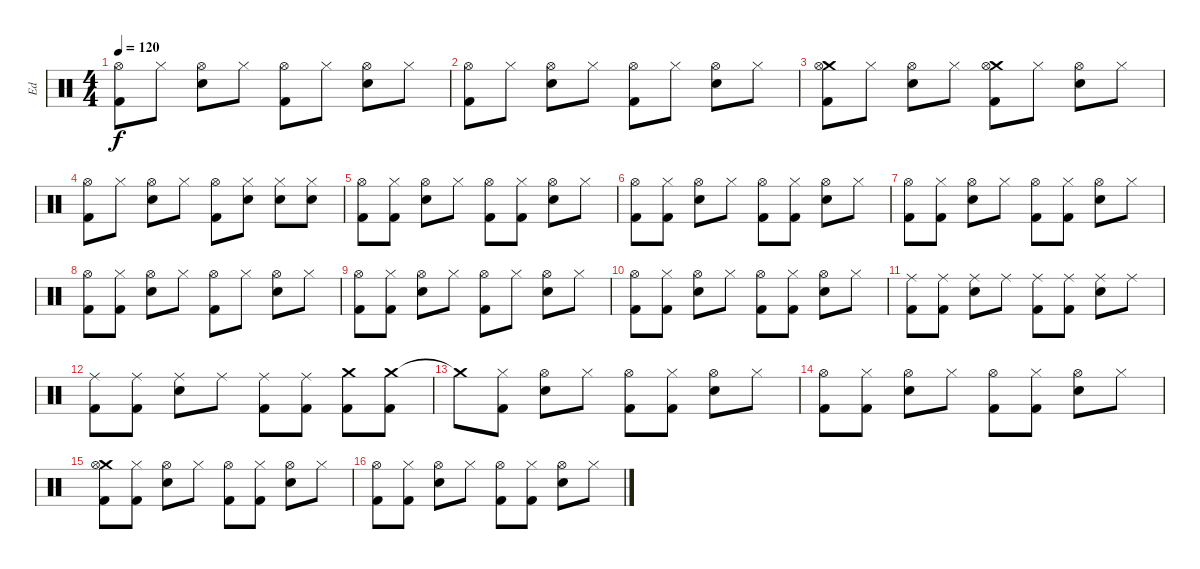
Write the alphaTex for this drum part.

\track ("Ed" "Ed") {instrument percussion}
\staff {score}
\articulation defaults
\ts (4 4)
\tempo 120
\clef neutral
\ks c
("Hi-Hat (open)" "Kick (hit) 2").8{dy f} "Hi-Hat (closed)".8 ("Hi-Hat (open)" "Snare (hit) 2").8 "Hi-Hat (closed)".8 ("Hi-Hat (open)" "Kick (hit) 2").8 "Hi-Hat (closed)".8 ("Hi-Hat (open)" "Snare (hit) 2").8 "Hi-Hat (closed)".8 |
("Hi-Hat (open)" "Kick (hit) 2").8 "Hi-Hat (closed)".8 ("Hi-Hat (open)" "Snare (hit) 2").8 "Hi-Hat (closed)".8 ("Hi-Hat (open)" "Kick (hit) 2").8 "Hi-Hat (closed)".8 ("Hi-Hat (open)" "Snare (hit) 2").8 "Hi-Hat (closed)".8 |
("Crash medium (hit)" "Hi-Hat (open)" "Kick (hit) 2").8 "Hi-Hat (closed)".8 ("Hi-Hat (open)" "Snare (hit) 2").8 "Hi-Hat (closed)".8 ("Crash medium (hit)" "Hi-Hat (open)" "Kick (hit) 2").8 "Hi-Hat (closed)".8 ("Hi-Hat (open)" "Snare (hit) 2").8 "Hi-Hat (closed)".8 |
("Hi-Hat (open)" "Kick (hit) 2").8 "Hi-Hat (closed)".8 ("Hi-Hat (open)" "Snare (hit) 2").8 "Hi-Hat (closed)".8 ("Hi-Hat (open)" "Kick (hit) 2").8 ("Hi-Hat (closed)" "Snare (hit) 2").8 ("Hi-Hat (closed)" "Snare (hit) 2").8 ("Hi-Hat (closed)" "Snare (hit) 2").8 |
("Hi-Hat (open)" "Kick (hit) 2").8 ("Hi-Hat (closed)" "Kick (hit) 2").8 ("Hi-Hat (open)" "Snare (hit) 2").8 "Hi-Hat (closed)".8 ("Hi-Hat (open)" "Kick (hit) 2").8 ("Hi-Hat (closed)" "Kick (hit) 2").8 ("Hi-Hat (open)" "Snare (hit) 2").8 "Hi-Hat (closed)".8 |
("Hi-Hat (open)" "Kick (hit) 2").8 ("Hi-Hat (closed)" "Kick (hit) 2").8 ("Hi-Hat (open)" "Snare (hit) 2").8 "Hi-Hat (closed)".8 ("Hi-Hat (open)" "Kick (hit) 2").8 ("Hi-Hat (closed)" "Kick (hit) 2").8 ("Hi-Hat (open)" "Snare (hit) 2").8 "Hi-Hat (closed)".8 |
("Hi-Hat (open)" "Kick (hit) 2").8 ("Hi-Hat (closed)" "Kick (hit) 2").8 ("Hi-Hat (open)" "Snare (hit) 2").8 "Hi-Hat (closed)".8 ("Hi-Hat (open)" "Kick (hit) 2").8 ("Hi-Hat (closed)" "Kick (hit) 2").8 ("Hi-Hat (open)" "Snare (hit) 2").8 "Hi-Hat (closed)".8 |
("Hi-Hat (open)" "Kick (hit) 2").8 ("Hi-Hat (closed)" "Kick (hit) 2").8 ("Hi-Hat (open)" "Snare (hit) 2").8 "Hi-Hat (closed)".8 ("Hi-Hat (open)" "Kick (hit) 2").8 "Hi-Hat (closed)".8 ("Hi-Hat (open)" "Snare (hit) 2").8 "Hi-Hat (closed)".8 |
("Hi-Hat (open)" "Kick (hit) 2").8 ("Hi-Hat (closed)" "Kick (hit) 2").8 ("Hi-Hat (open)" "Snare (hit) 2").8 "Hi-Hat (closed)".8 ("Hi-Hat (open)" "Kick (hit) 2").8 "Hi-Hat (closed)".8 ("Hi-Hat (open)" "Snare (hit) 2").8 "Hi-Hat (closed)".8 |
("Hi-Hat (open)" "Kick (hit) 2").8 ("Hi-Hat (closed)" "Kick (hit) 2").8 ("Hi-Hat (open)" "Snare (hit) 2").8 "Hi-Hat (closed)".8 ("Hi-Hat (open)" "Kick (hit) 2").8 ("Hi-Hat (closed)" "Kick (hit) 2").8 ("Hi-Hat (open)" "Snare (hit) 2").8 "Hi-Hat (closed)".8 |
("Ride (middle)" "Kick (hit) 2").8 ("Ride (middle)" "Kick (hit) 2").8 ("Ride (middle)" "Snare (hit) 2").8 "Ride (middle)".8 ("Ride (middle)" "Kick (hit) 2").8 ("Ride (middle)" "Kick (hit) 2").8 ("Ride (middle)" "Snare (hit) 2").8 "Ride (middle)".8 |
("Ride (middle)" "Kick (hit) 2").8 ("Ride (middle)" "Kick (hit) 2").8 ("Ride (middle)" "Snare (hit) 2").8 "Ride (middle)".8 ("Ride (middle)" "Kick (hit) 2").8 ("Ride (middle)" "Kick (hit) 2").8 ("Crash medium (hit)" "Kick (hit) 2").8 ("Crash medium (hit)" "Kick (hit) 2").8 |
"Crash medium (hit)"{t}.8 ("Hi-Hat (closed)" "Kick (hit) 2").8 ("Hi-Hat (open)" "Snare (hit) 2").8 "Hi-Hat (closed)".8 ("Kick (hit) 2" "Hi-Hat (open)").8 ("Kick (hit) 2" "Hi-Hat (closed)").8 ("Snare (hit) 2" "Hi-Hat (open)").8 "Hi-Hat (closed)".8 |
("Hi-Hat (open)" "Kick (hit) 2").8 ("Hi-Hat (closed)" "Kick (hit) 2").8 ("Hi-Hat (open)" "Snare (hit) 2").8 "Hi-Hat (closed)".8 ("Hi-Hat (open)" "Kick (hit) 2").8 ("Hi-Hat (closed)" "Kick (hit) 2").8 ("Hi-Hat (open)" "Snare (hit) 2").8 "Hi-Hat (closed)".8 |
("Crash medium (hit)" "Hi-Hat (open)" "Kick (hit) 2").8 ("Hi-Hat (closed)" "Kick (hit) 2").8 ("Hi-Hat (open)" "Snare (hit) 2").8 "Hi-Hat (closed)".8 ("Hi-Hat (open)" "Kick (hit) 2").8 ("Hi-Hat (closed)" "Kick (hit) 2").8 ("Hi-Hat (open)" "Snare (hit) 2").8 "Hi-Hat (closed)".8 |
("Hi-Hat (open)" "Kick (hit) 2").8 ("Hi-Hat (closed)" "Kick (hit) 2").8 ("Hi-Hat (open)" "Snare (hit) 2").8 "Hi-Hat (closed)".8 ("Hi-Hat (open)" "Kick (hit) 2").8 ("Hi-Hat (closed)" "Kick (hit) 2").8 ("Hi-Hat (open)" "Snare (hit) 2").8 "Hi-Hat (closed)".8
